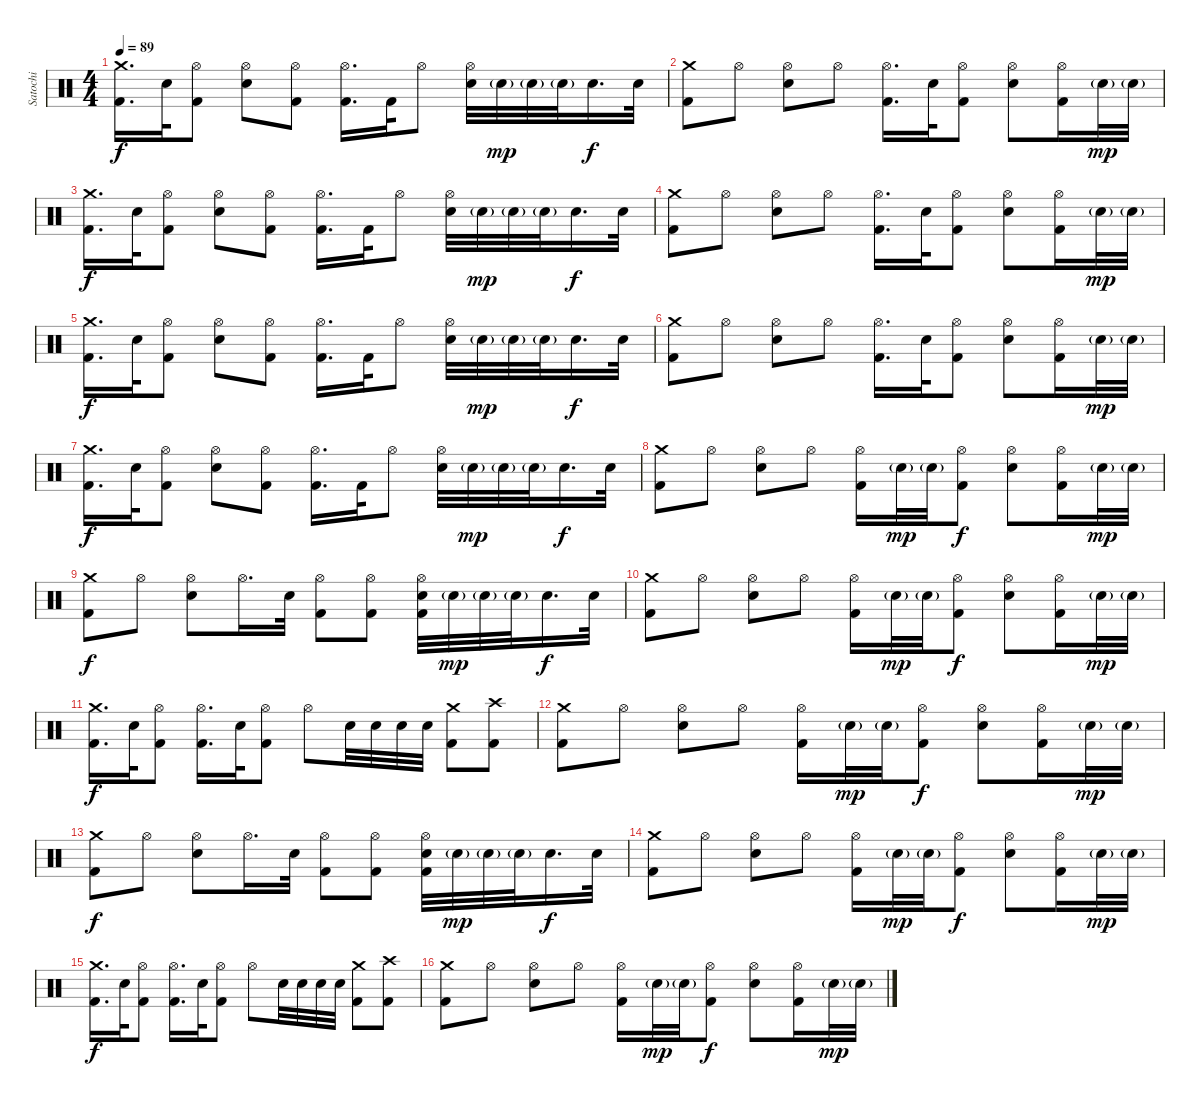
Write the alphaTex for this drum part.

\track ("Satochi" "Satochi") {instrument percussion}
\staff {score}
\articulation defaults
\ts (4 4)
\tempo 89
\clef neutral
\ks c
("Crash medium (hit)" "Kick (hit) 2").16{d dy f} "Electric Snare (hit)".32 ("Hi-Hat (open)" "Kick (hit) 2").8 ("Hi-Hat (open)" "Electric Snare (hit)").8 ("Hi-Hat (open)" "Kick (hit) 2").8 ("Hi-Hat (open)" "Kick (hit) 2").16{d} "Kick (hit) 2".32 "Hi-Hat (open)".8 ("Hi-Hat (open)" "Electric Snare (hit)").32 "Electric Snare (hit)"{g}.32{dy mp} "Electric Snare (hit)"{g}.32 "Electric Snare (hit)"{g}.32 "Electric Snare (hit)".16{d dy f} "Electric Snare (hit)".32 |
("Crash medium (hit)" "Kick (hit) 2").8 "Hi-Hat (open)".8 ("Hi-Hat (open)" "Electric Snare (hit)").8 "Hi-Hat (open)".8 ("Hi-Hat (open)" "Kick (hit) 2").16{d} "Electric Snare (hit)".32 ("Hi-Hat (open)" "Kick (hit) 2").8 ("Hi-Hat (open)" "Electric Snare (hit)").8 ("Hi-Hat (open)" "Kick (hit) 2").16 "Electric Snare (hit)"{g}.32{dy mp} "Electric Snare (hit)"{g}.32 |
("Crash medium (hit)" "Kick (hit) 2").16{d dy f} "Electric Snare (hit)".32 ("Hi-Hat (open)" "Kick (hit) 2").8 ("Hi-Hat (open)" "Electric Snare (hit)").8 ("Hi-Hat (open)" "Kick (hit) 2").8 ("Hi-Hat (open)" "Kick (hit) 2").16{d} "Kick (hit) 2".32 "Hi-Hat (open)".8 ("Hi-Hat (open)" "Electric Snare (hit)").32 "Electric Snare (hit)"{g}.32{dy mp} "Electric Snare (hit)"{g}.32 "Electric Snare (hit)"{g}.32 "Electric Snare (hit)".16{d dy f} "Electric Snare (hit)".32 |
("Crash medium (hit)" "Kick (hit) 2").8 "Hi-Hat (open)".8 ("Hi-Hat (open)" "Electric Snare (hit)").8 "Hi-Hat (open)".8 ("Hi-Hat (open)" "Kick (hit) 2").16{d} "Electric Snare (hit)".32 ("Hi-Hat (open)" "Kick (hit) 2").8 ("Hi-Hat (open)" "Electric Snare (hit)").8 ("Hi-Hat (open)" "Kick (hit) 2").16 "Electric Snare (hit)"{g}.32{dy mp} "Electric Snare (hit)"{g}.32 |
("Crash medium (hit)" "Kick (hit) 2").16{d dy f} "Electric Snare (hit)".32 ("Hi-Hat (open)" "Kick (hit) 2").8 ("Hi-Hat (open)" "Electric Snare (hit)").8 ("Hi-Hat (open)" "Kick (hit) 2").8 ("Hi-Hat (open)" "Kick (hit) 2").16{d} "Kick (hit) 2".32 "Hi-Hat (open)".8 ("Hi-Hat (open)" "Electric Snare (hit)").32 "Electric Snare (hit)"{g}.32{dy mp} "Electric Snare (hit)"{g}.32 "Electric Snare (hit)"{g}.32 "Electric Snare (hit)".16{d dy f} "Electric Snare (hit)".32 |
("Crash medium (hit)" "Kick (hit) 2").8 "Hi-Hat (open)".8 ("Hi-Hat (open)" "Electric Snare (hit)").8 "Hi-Hat (open)".8 ("Hi-Hat (open)" "Kick (hit) 2").16{d} "Electric Snare (hit)".32 ("Hi-Hat (open)" "Kick (hit) 2").8 ("Hi-Hat (open)" "Electric Snare (hit)").8 ("Hi-Hat (open)" "Kick (hit) 2").16 "Electric Snare (hit)"{g}.32{dy mp} "Electric Snare (hit)"{g}.32 |
("Crash medium (hit)" "Kick (hit) 2").16{d dy f} "Electric Snare (hit)".32 ("Hi-Hat (open)" "Kick (hit) 2").8 ("Hi-Hat (open)" "Electric Snare (hit)").8 ("Hi-Hat (open)" "Kick (hit) 2").8 ("Hi-Hat (open)" "Kick (hit) 2").16{d} "Kick (hit) 2".32 "Hi-Hat (open)".8 ("Hi-Hat (open)" "Electric Snare (hit)").32 "Electric Snare (hit)"{g}.32{dy mp} "Electric Snare (hit)"{g}.32 "Electric Snare (hit)"{g}.32 "Electric Snare (hit)".16{d dy f} "Electric Snare (hit)".32 |
("Crash medium (hit)" "Kick (hit) 2").8 "Hi-Hat (open)".8 ("Hi-Hat (open)" "Electric Snare (hit)").8 "Hi-Hat (open)".8 ("Hi-Hat (open)" "Kick (hit) 2").16 "Electric Snare (hit)"{g}.32{dy mp} "Electric Snare (hit)"{g}.32 ("Hi-Hat (open)" "Kick (hit) 2").8{dy f} ("Hi-Hat (open)" "Electric Snare (hit)").8 ("Hi-Hat (open)" "Kick (hit) 2").16 "Electric Snare (hit)"{g}.32{dy mp} "Electric Snare (hit)"{g}.32 |
("Crash medium (hit)" "Kick (hit) 2").8{dy f} "Hi-Hat (open)".8 ("Hi-Hat (open)" "Electric Snare (hit)").8 "Hi-Hat (open)".16{d} "Electric Snare (hit)".32 ("Hi-Hat (open)" "Kick (hit) 2").8 ("Hi-Hat (open)" "Kick (hit) 2").8 ("Hi-Hat (open)" "Electric Snare (hit)" "Kick (hit) 2").32 "Electric Snare (hit)"{g}.32{dy mp} "Electric Snare (hit)"{g}.32 "Electric Snare (hit)"{g}.32 "Electric Snare (hit)".16{d dy f} "Electric Snare (hit)".32 |
("Crash medium (hit)" "Kick (hit) 2").8 "Hi-Hat (open)".8 ("Hi-Hat (open)" "Electric Snare (hit)").8 "Hi-Hat (open)".8 ("Hi-Hat (open)" "Kick (hit) 2").16 "Electric Snare (hit)"{g}.32{dy mp} "Electric Snare (hit)"{g}.32 ("Hi-Hat (open)" "Kick (hit) 2").8{dy f} ("Hi-Hat (open)" "Electric Snare (hit)").8 ("Hi-Hat (open)" "Kick (hit) 2").16 "Electric Snare (hit)"{g}.32{dy mp} "Electric Snare (hit)"{g}.32 |
("Crash medium (hit)" "Kick (hit) 2").16{d dy f} "Electric Snare (hit)".32 ("Hi-Hat (open)" "Kick (hit) 2").8 ("Hi-Hat (open)" "Kick (hit) 2").16{d} "Electric Snare (hit)".32 ("Hi-Hat (open)" "Kick (hit) 2").8 "Hi-Hat (open)".8 "Electric Snare (hit)".32 "Electric Snare (hit)".32 "Electric Snare (hit)".32 "Electric Snare (hit)".32 ("Crash medium (hit)" "Kick (hit) 2").8 ("Crash high (hit)" "Kick (hit) 2").8 |
("Crash medium (hit)" "Kick (hit) 2").8 "Hi-Hat (open)".8 ("Hi-Hat (open)" "Electric Snare (hit)").8 "Hi-Hat (open)".8 ("Hi-Hat (open)" "Kick (hit) 2").16 "Electric Snare (hit)"{g}.32{dy mp} "Electric Snare (hit)"{g}.32 ("Hi-Hat (open)" "Kick (hit) 2").8{dy f} ("Hi-Hat (open)" "Electric Snare (hit)").8 ("Hi-Hat (open)" "Kick (hit) 2").16 "Electric Snare (hit)"{g}.32{dy mp} "Electric Snare (hit)"{g}.32 |
("Crash medium (hit)" "Kick (hit) 2").8{dy f} "Hi-Hat (open)".8 ("Hi-Hat (open)" "Electric Snare (hit)").8 "Hi-Hat (open)".16{d} "Electric Snare (hit)".32 ("Hi-Hat (open)" "Kick (hit) 2").8 ("Hi-Hat (open)" "Kick (hit) 2").8 ("Hi-Hat (open)" "Electric Snare (hit)" "Kick (hit) 2").32 "Electric Snare (hit)"{g}.32{dy mp} "Electric Snare (hit)"{g}.32 "Electric Snare (hit)"{g}.32 "Electric Snare (hit)".16{d dy f} "Electric Snare (hit)".32 |
("Crash medium (hit)" "Kick (hit) 2").8 "Hi-Hat (open)".8 ("Hi-Hat (open)" "Electric Snare (hit)").8 "Hi-Hat (open)".8 ("Hi-Hat (open)" "Kick (hit) 2").16 "Electric Snare (hit)"{g}.32{dy mp} "Electric Snare (hit)"{g}.32 ("Hi-Hat (open)" "Kick (hit) 2").8{dy f} ("Hi-Hat (open)" "Electric Snare (hit)").8 ("Hi-Hat (open)" "Kick (hit) 2").16 "Electric Snare (hit)"{g}.32{dy mp} "Electric Snare (hit)"{g}.32 |
("Crash medium (hit)" "Kick (hit) 2").16{d dy f} "Electric Snare (hit)".32 ("Hi-Hat (open)" "Kick (hit) 2").8 ("Hi-Hat (open)" "Kick (hit) 2").16{d} "Electric Snare (hit)".32 ("Hi-Hat (open)" "Kick (hit) 2").8 "Hi-Hat (open)".8 "Electric Snare (hit)".32 "Electric Snare (hit)".32 "Electric Snare (hit)".32 "Electric Snare (hit)".32 ("Crash medium (hit)" "Kick (hit) 2").8 ("Crash high (hit)" "Kick (hit) 2").8 |
("Crash medium (hit)" "Kick (hit) 2").8 "Hi-Hat (open)".8 ("Hi-Hat (open)" "Electric Snare (hit)").8 "Hi-Hat (open)".8 ("Hi-Hat (open)" "Kick (hit) 2").16 "Electric Snare (hit)"{g}.32{dy mp} "Electric Snare (hit)"{g}.32 ("Hi-Hat (open)" "Kick (hit) 2").8{dy f} ("Hi-Hat (open)" "Electric Snare (hit)").8 ("Hi-Hat (open)" "Kick (hit) 2").16 "Electric Snare (hit)"{g}.32{dy mp} "Electric Snare (hit)"{g}.32
